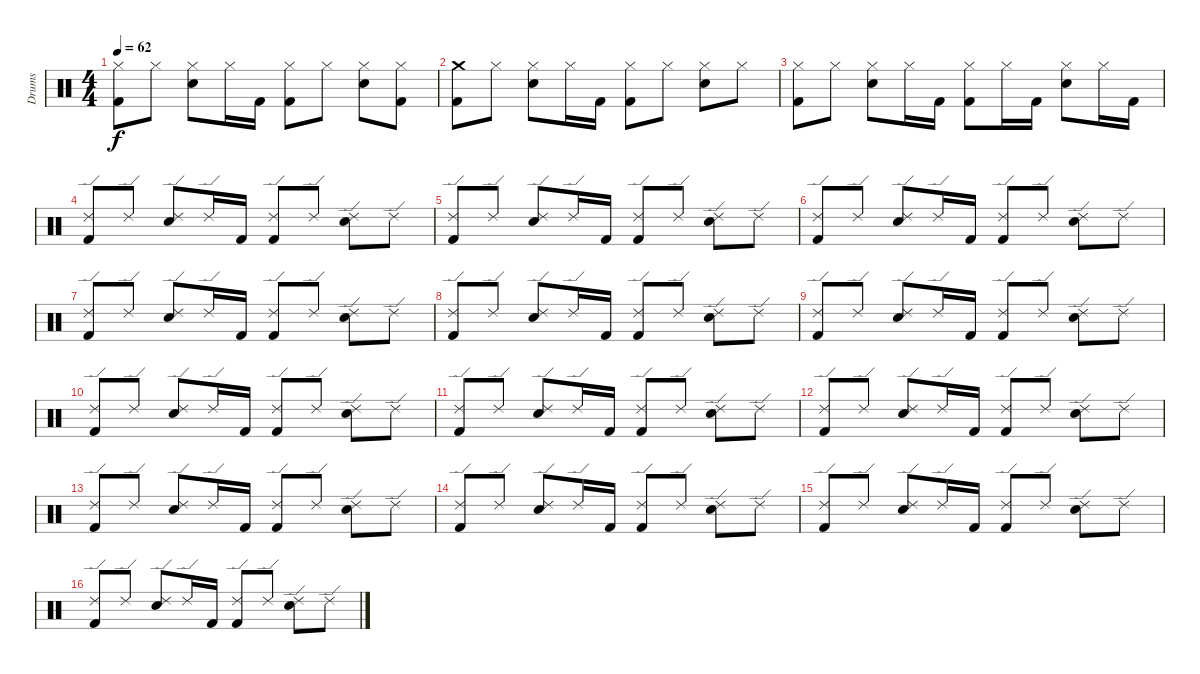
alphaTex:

\track ("Drums" "Drums") {instrument percussion}
\staff {score}
\articulation defaults
\ts (4 4)
\tempo 62
\clef neutral
\ks c
("Hi-Hat (closed)" "Kick (hit) 2").8{dy f} "Hi-Hat (closed)".8 ("Hi-Hat (closed)" "Electric Snare (hit)").8 "Hi-Hat (closed)".16 "Kick (hit) 2".16 ("Hi-Hat (closed)" "Kick (hit) 2").8 "Hi-Hat (closed)".8 ("Hi-Hat (closed)" "Electric Snare (hit)").8 ("Hi-Hat (closed)" "Kick (hit) 2").8 |
("Crash medium (hit)" "Kick (hit) 2").8 "Hi-Hat (closed)".8 ("Hi-Hat (closed)" "Electric Snare (hit)").8 "Hi-Hat (closed)".16 "Kick (hit) 2".16 ("Hi-Hat (closed)" "Kick (hit) 2").8 "Hi-Hat (closed)".8 ("Hi-Hat (closed)" "Electric Snare (hit)").8 "Hi-Hat (closed)".8 |
("Hi-Hat (closed)" "Kick (hit) 2").8 "Hi-Hat (closed)".8 ("Hi-Hat (closed)" "Electric Snare (hit)").8 "Hi-Hat (closed)".16 "Kick (hit) 2".16 ("Hi-Hat (closed)" "Kick (hit) 2").8 "Hi-Hat (closed)".16 "Kick (hit) 2".16 ("Hi-Hat (closed)" "Electric Snare (hit)").8 "Hi-Hat (closed)".16 "Kick (hit) 2".16 |
("Ride (edge) 2" "Kick (hit) 2").8 "Ride (edge) 2".8 ("Ride (edge) 2" "Electric Snare (hit)").8 "Ride (edge) 2".16 "Kick (hit) 2".16 ("Ride (edge) 2" "Kick (hit) 2").8 "Ride (edge) 2".8 ("Ride (edge) 2" "Electric Snare (hit)").8 "Ride (edge) 2".8 |
("Ride (edge) 2" "Kick (hit) 2").8 "Ride (edge) 2".8 ("Ride (edge) 2" "Electric Snare (hit)").8 "Ride (edge) 2".16 "Kick (hit) 2".16 ("Ride (edge) 2" "Kick (hit) 2").8 "Ride (edge) 2".8 ("Ride (edge) 2" "Electric Snare (hit)").8 "Ride (edge) 2".8 |
("Ride (edge) 2" "Kick (hit) 2").8 "Ride (edge) 2".8 ("Ride (edge) 2" "Electric Snare (hit)").8 "Ride (edge) 2".16 "Kick (hit) 2".16 ("Ride (edge) 2" "Kick (hit) 2").8 "Ride (edge) 2".8 ("Ride (edge) 2" "Electric Snare (hit)").8 "Ride (edge) 2".8 |
("Ride (edge) 2" "Kick (hit) 2").8 "Ride (edge) 2".8 ("Ride (edge) 2" "Electric Snare (hit)").8 "Ride (edge) 2".16 "Kick (hit) 2".16 ("Ride (edge) 2" "Kick (hit) 2").8 "Ride (edge) 2".8 ("Ride (edge) 2" "Electric Snare (hit)").8 "Ride (edge) 2".8 |
("Ride (edge) 2" "Kick (hit) 2").8 "Ride (edge) 2".8 ("Ride (edge) 2" "Electric Snare (hit)").8 "Ride (edge) 2".16 "Kick (hit) 2".16 ("Ride (edge) 2" "Kick (hit) 2").8 "Ride (edge) 2".8 ("Ride (edge) 2" "Electric Snare (hit)").8 "Ride (edge) 2".8 |
("Ride (edge) 2" "Kick (hit) 2").8 "Ride (edge) 2".8 ("Ride (edge) 2" "Electric Snare (hit)").8 "Ride (edge) 2".16 "Kick (hit) 2".16 ("Ride (edge) 2" "Kick (hit) 2").8 "Ride (edge) 2".8 ("Ride (edge) 2" "Electric Snare (hit)").8 "Ride (edge) 2".8 |
("Ride (edge) 2" "Kick (hit) 2").8 "Ride (edge) 2".8 ("Ride (edge) 2" "Electric Snare (hit)").8 "Ride (edge) 2".16 "Kick (hit) 2".16 ("Ride (edge) 2" "Kick (hit) 2").8 "Ride (edge) 2".8 ("Ride (edge) 2" "Electric Snare (hit)").8 "Ride (edge) 2".8 |
("Ride (edge) 2" "Kick (hit) 2").8 "Ride (edge) 2".8 ("Ride (edge) 2" "Electric Snare (hit)").8 "Ride (edge) 2".16 "Kick (hit) 2".16 ("Ride (edge) 2" "Kick (hit) 2").8 "Ride (edge) 2".8 ("Ride (edge) 2" "Electric Snare (hit)").8 "Ride (edge) 2".8 |
("Ride (edge) 2" "Kick (hit) 2").8 "Ride (edge) 2".8 ("Ride (edge) 2" "Electric Snare (hit)").8 "Ride (edge) 2".16 "Kick (hit) 2".16 ("Ride (edge) 2" "Kick (hit) 2").8 "Ride (edge) 2".8 ("Ride (edge) 2" "Electric Snare (hit)").8 "Ride (edge) 2".8 |
("Ride (edge) 2" "Kick (hit) 2").8 "Ride (edge) 2".8 ("Ride (edge) 2" "Electric Snare (hit)").8 "Ride (edge) 2".16 "Kick (hit) 2".16 ("Ride (edge) 2" "Kick (hit) 2").8 "Ride (edge) 2".8 ("Ride (edge) 2" "Electric Snare (hit)").8 "Ride (edge) 2".8 |
("Ride (edge) 2" "Kick (hit) 2").8 "Ride (edge) 2".8 ("Ride (edge) 2" "Electric Snare (hit)").8 "Ride (edge) 2".16 "Kick (hit) 2".16 ("Ride (edge) 2" "Kick (hit) 2").8 "Ride (edge) 2".8 ("Ride (edge) 2" "Electric Snare (hit)").8 "Ride (edge) 2".8 |
("Ride (edge) 2" "Kick (hit) 2").8 "Ride (edge) 2".8 ("Ride (edge) 2" "Electric Snare (hit)").8 "Ride (edge) 2".16 "Kick (hit) 2".16 ("Ride (edge) 2" "Kick (hit) 2").8 "Ride (edge) 2".8 ("Ride (edge) 2" "Electric Snare (hit)").8 "Ride (edge) 2".8 |
("Ride (edge) 2" "Kick (hit) 2").8 "Ride (edge) 2".8 ("Ride (edge) 2" "Electric Snare (hit)").8 "Ride (edge) 2".16 "Kick (hit) 2".16 ("Ride (edge) 2" "Kick (hit) 2").8 "Ride (edge) 2".8 ("Ride (edge) 2" "Electric Snare (hit)").8 "Ride (edge) 2".8
